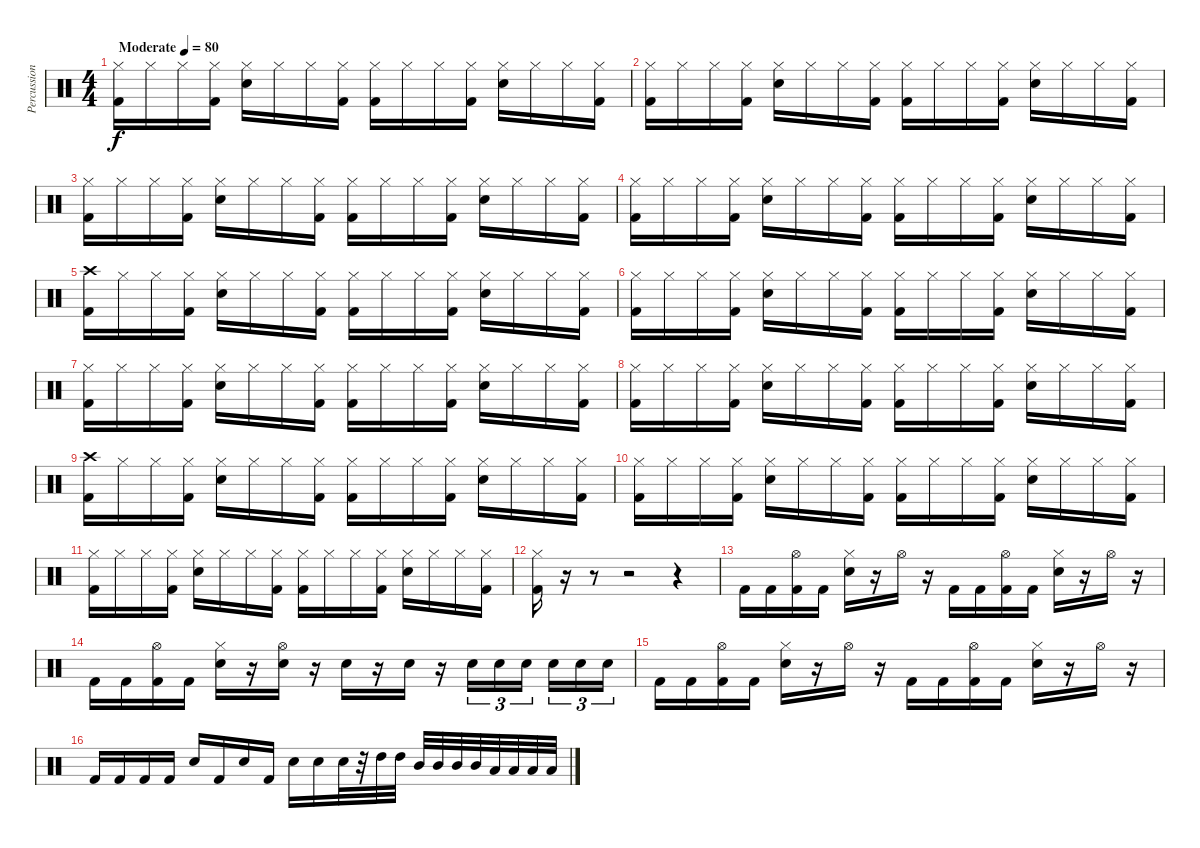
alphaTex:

\track ("Percussion" "Percussion") {instrument percussion}
\staff {score}
\articulation defaults
\ts (4 4)
\tempo (80 "Moderate")
\clef neutral
\ks c
("Hi-Hat (closed)" "Kick (hit) 2").16{dy f} "Hi-Hat (closed)".16 "Hi-Hat (closed)".16 ("Hi-Hat (closed)" "Kick (hit) 2").16 ("Hi-Hat (closed)" "Electric Snare (hit)").16 "Hi-Hat (closed)".16 "Hi-Hat (closed)".16 ("Hi-Hat (closed)" "Kick (hit) 2").16 ("Hi-Hat (closed)" "Kick (hit) 2").16 "Hi-Hat (closed)".16 "Hi-Hat (closed)".16 ("Hi-Hat (closed)" "Kick (hit) 2").16 ("Hi-Hat (closed)" "Electric Snare (hit)").16 "Hi-Hat (closed)".16 "Hi-Hat (closed)".16 ("Hi-Hat (closed)" "Kick (hit) 2").16 |
("Hi-Hat (closed)" "Kick (hit) 2").16 "Hi-Hat (closed)".16 "Hi-Hat (closed)".16 ("Hi-Hat (closed)" "Kick (hit) 2").16 ("Hi-Hat (closed)" "Electric Snare (hit)").16 "Hi-Hat (closed)".16 "Hi-Hat (closed)".16 ("Hi-Hat (closed)" "Kick (hit) 2").16 ("Hi-Hat (closed)" "Kick (hit) 2").16 "Hi-Hat (closed)".16 "Hi-Hat (closed)".16 ("Hi-Hat (closed)" "Kick (hit) 2").16 ("Hi-Hat (closed)" "Electric Snare (hit)").16 "Hi-Hat (closed)".16 "Hi-Hat (closed)".16 ("Hi-Hat (closed)" "Kick (hit) 2").16 |
("Hi-Hat (closed)" "Kick (hit) 2").16 "Hi-Hat (closed)".16 "Hi-Hat (closed)".16 ("Hi-Hat (closed)" "Kick (hit) 2").16 ("Hi-Hat (closed)" "Electric Snare (hit)").16 "Hi-Hat (closed)".16 "Hi-Hat (closed)".16 ("Hi-Hat (closed)" "Kick (hit) 2").16 ("Hi-Hat (closed)" "Kick (hit) 2").16 "Hi-Hat (closed)".16 "Hi-Hat (closed)".16 ("Hi-Hat (closed)" "Kick (hit) 2").16 ("Hi-Hat (closed)" "Electric Snare (hit)").16 "Hi-Hat (closed)".16 "Hi-Hat (closed)".16 ("Hi-Hat (closed)" "Kick (hit) 2").16 |
("Hi-Hat (closed)" "Kick (hit) 2").16 "Hi-Hat (closed)".16 "Hi-Hat (closed)".16 ("Hi-Hat (closed)" "Kick (hit) 2").16 ("Hi-Hat (closed)" "Electric Snare (hit)").16 "Hi-Hat (closed)".16 "Hi-Hat (closed)".16 ("Hi-Hat (closed)" "Kick (hit) 2").16 ("Hi-Hat (closed)" "Kick (hit) 2").16 "Hi-Hat (closed)".16 "Hi-Hat (closed)".16 ("Hi-Hat (closed)" "Kick (hit) 2").16 ("Hi-Hat (closed)" "Electric Snare (hit)").16 "Hi-Hat (closed)".16 "Hi-Hat (closed)".16 ("Hi-Hat (closed)" "Kick (hit) 2").16 |
("Crash high (hit)" "Kick (hit) 2").16 "Hi-Hat (closed)".16 "Hi-Hat (closed)".16 ("Hi-Hat (closed)" "Kick (hit) 2").16 ("Hi-Hat (closed)" "Electric Snare (hit)").16 "Hi-Hat (closed)".16 "Hi-Hat (closed)".16 ("Hi-Hat (closed)" "Kick (hit) 2").16 ("Hi-Hat (closed)" "Kick (hit) 2").16 "Hi-Hat (closed)".16 "Hi-Hat (closed)".16 ("Hi-Hat (closed)" "Kick (hit) 2").16 ("Hi-Hat (closed)" "Electric Snare (hit)").16 "Hi-Hat (closed)".16 "Hi-Hat (closed)".16 ("Hi-Hat (closed)" "Kick (hit) 2").16 |
("Hi-Hat (closed)" "Kick (hit) 2").16 "Hi-Hat (closed)".16 "Hi-Hat (closed)".16 ("Hi-Hat (closed)" "Kick (hit) 2").16 ("Hi-Hat (closed)" "Electric Snare (hit)").16 "Hi-Hat (closed)".16 "Hi-Hat (closed)".16 ("Hi-Hat (closed)" "Kick (hit) 2").16 ("Hi-Hat (closed)" "Kick (hit) 2").16 "Hi-Hat (closed)".16 "Hi-Hat (closed)".16 ("Hi-Hat (closed)" "Kick (hit) 2").16 ("Hi-Hat (closed)" "Electric Snare (hit)").16 "Hi-Hat (closed)".16 "Hi-Hat (closed)".16 ("Hi-Hat (closed)" "Kick (hit) 2").16 |
("Hi-Hat (closed)" "Kick (hit) 2").16 "Hi-Hat (closed)".16 "Hi-Hat (closed)".16 ("Hi-Hat (closed)" "Kick (hit) 2").16 ("Hi-Hat (closed)" "Electric Snare (hit)").16 "Hi-Hat (closed)".16 "Hi-Hat (closed)".16 ("Hi-Hat (closed)" "Kick (hit) 2").16 ("Hi-Hat (closed)" "Kick (hit) 2").16 "Hi-Hat (closed)".16 "Hi-Hat (closed)".16 ("Hi-Hat (closed)" "Kick (hit) 2").16 ("Hi-Hat (closed)" "Electric Snare (hit)").16 "Hi-Hat (closed)".16 "Hi-Hat (closed)".16 ("Hi-Hat (closed)" "Kick (hit) 2").16 |
("Hi-Hat (closed)" "Kick (hit) 2").16 "Hi-Hat (closed)".16 "Hi-Hat (closed)".16 ("Hi-Hat (closed)" "Kick (hit) 2").16 ("Hi-Hat (closed)" "Electric Snare (hit)").16 "Hi-Hat (closed)".16 "Hi-Hat (closed)".16 ("Hi-Hat (closed)" "Kick (hit) 2").16 ("Hi-Hat (closed)" "Kick (hit) 2").16 "Hi-Hat (closed)".16 "Hi-Hat (closed)".16 ("Hi-Hat (closed)" "Kick (hit) 2").16 ("Hi-Hat (closed)" "Electric Snare (hit)").16 "Hi-Hat (closed)".16 "Hi-Hat (closed)".16 ("Hi-Hat (closed)" "Kick (hit) 2").16 |
("Crash high (hit)" "Kick (hit) 2").16 "Hi-Hat (closed)".16 "Hi-Hat (closed)".16 ("Hi-Hat (closed)" "Kick (hit) 2").16 ("Hi-Hat (closed)" "Electric Snare (hit)").16 "Hi-Hat (closed)".16 "Hi-Hat (closed)".16 ("Hi-Hat (closed)" "Kick (hit) 2").16 ("Hi-Hat (closed)" "Kick (hit) 2").16 "Hi-Hat (closed)".16 "Hi-Hat (closed)".16 ("Hi-Hat (closed)" "Kick (hit) 2").16 ("Hi-Hat (closed)" "Electric Snare (hit)").16 "Hi-Hat (closed)".16 "Hi-Hat (closed)".16 ("Hi-Hat (closed)" "Kick (hit) 2").16 |
("Hi-Hat (closed)" "Kick (hit) 2").16 "Hi-Hat (closed)".16 "Hi-Hat (closed)".16 ("Hi-Hat (closed)" "Kick (hit) 2").16 ("Hi-Hat (closed)" "Electric Snare (hit)").16 "Hi-Hat (closed)".16 "Hi-Hat (closed)".16 ("Hi-Hat (closed)" "Kick (hit) 2").16 ("Hi-Hat (closed)" "Kick (hit) 2").16 "Hi-Hat (closed)".16 "Hi-Hat (closed)".16 ("Hi-Hat (closed)" "Kick (hit) 2").16 ("Hi-Hat (closed)" "Electric Snare (hit)").16 "Hi-Hat (closed)".16 "Hi-Hat (closed)".16 ("Hi-Hat (closed)" "Kick (hit) 2").16 |
("Hi-Hat (closed)" "Kick (hit) 2").16 "Hi-Hat (closed)".16 "Hi-Hat (closed)".16 ("Hi-Hat (closed)" "Kick (hit) 2").16 ("Hi-Hat (closed)" "Electric Snare (hit)").16 "Hi-Hat (closed)".16 "Hi-Hat (closed)".16 ("Hi-Hat (closed)" "Kick (hit) 2").16 ("Hi-Hat (closed)" "Kick (hit) 2").16 "Hi-Hat (closed)".16 "Hi-Hat (closed)".16 ("Hi-Hat (closed)" "Kick (hit) 2").16 ("Hi-Hat (closed)" "Electric Snare (hit)").16 "Hi-Hat (closed)".16 "Hi-Hat (closed)".16 ("Hi-Hat (closed)" "Kick (hit) 2").16 |
("Hi-Hat (closed)" "Kick (hit) 2").16 r.16 r.8 r.2 r.4 |
"Kick (hit) 2".16 "Kick (hit) 2".16 ("Hi-Hat (open)" "Kick (hit) 2").16 "Kick (hit) 2".16 ("Hi-Hat (closed)" "Electric Snare (hit)").16 r.16 "Hi-Hat (open)".16 r.16 "Kick (hit) 2".16 "Kick (hit) 2".16 ("Hi-Hat (open)" "Kick (hit) 2").16 "Kick (hit) 2".16 ("Hi-Hat (closed)" "Electric Snare (hit)").16 r.16 "Hi-Hat (open)".16 r.16 |
"Kick (hit) 2".16 "Kick (hit) 2".16 ("Hi-Hat (open)" "Kick (hit) 2").16 "Kick (hit) 2".16 ("Hi-Hat (closed)" "Electric Snare (hit)").16 r.16 ("Hi-Hat (open)" "Electric Snare (hit)").16 r.16 "Electric Snare (hit)".16 r.16 "Electric Snare (hit)".16 r.16 "Electric Snare (hit)".16{tu (3 2)} "Electric Snare (hit)".16{tu (3 2)} "Electric Snare (hit)".16{tu (3 2) beam splitsecondary} "Electric Snare (hit)".16{tu (3 2)} "Electric Snare (hit)".16{tu (3 2)} "Electric Snare (hit)".16{tu (3 2)} |
"Kick (hit) 2".16 "Kick (hit) 2".16 ("Hi-Hat (open)" "Kick (hit) 2").16 "Kick (hit) 2".16 ("Hi-Hat (closed)" "Electric Snare (hit)").16 r.16 "Hi-Hat (open)".16 r.16 "Kick (hit) 2".16 "Kick (hit) 2".16 ("Hi-Hat (open)" "Kick (hit) 2").16 "Kick (hit) 2".16 ("Hi-Hat (closed)" "Electric Snare (hit)").16 r.16 "Hi-Hat (open)".16 r.16 |
"Kick (hit) 2".16 "Kick (hit) 2".16 "Kick (hit) 2".16 "Kick (hit) 2".16 "Electric Snare (hit)".16 "Kick (hit) 2".16 "Electric Snare (hit)".16 "Kick (hit) 2".16 "Electric Snare (hit)".16 "Electric Snare (hit)".16 "Electric Snare (hit)".32 r.32 "High Tom (hit)".32 "High Tom (hit)".32 "Mid Tom (hit)".32 "Mid Tom (hit)".32 "Mid Tom (hit)".32 "Mid Tom (hit)".32 "Low Tom (hit)".32 "Low Tom (hit)".32 "Low Tom (hit)".32 "Low Tom (hit)".32
